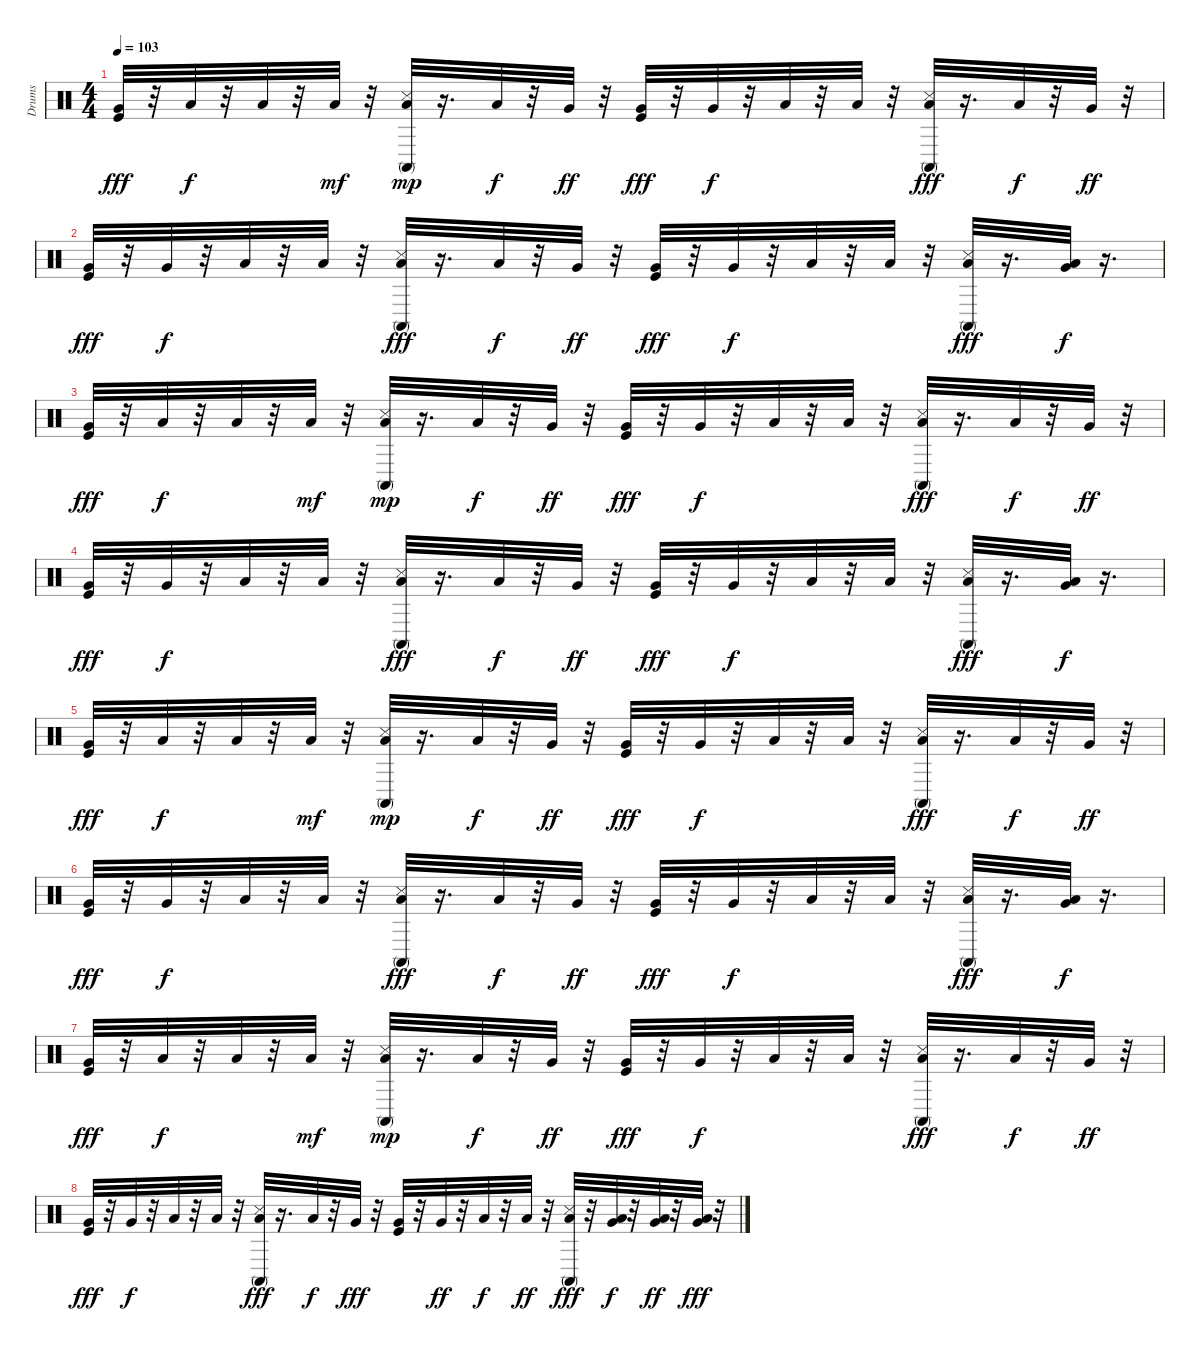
\track ("Drums" "Drums") {instrument percussion}
\staff {score}
\articulation defaults
\ts (4 4)
\tempo 103
\clef neutral
\ks c
("Very Low Tom (hit)" "Kick (hit)").32{dy fff} r.32 "Low Floor Tom (hit)".32{dy f} r.32 "Low Floor Tom (hit)".32 r.32 "Low Floor Tom (hit)".32{dy mf} r.32 ("Conga high (mute)" "Snare (side stick) 3" "Low Floor Tom (hit)").32{dy mp} r.16{d} "Low Floor Tom (hit)".32{dy f} r.32 "Very Low Tom (hit)".32{dy ff} r.32 ("Very Low Tom (hit)" "Kick (hit)").32{dy fff} r.32 "Very Low Tom (hit)".32{dy f} r.32 "Low Floor Tom (hit)".32 r.32 "Low Floor Tom (hit)".32 r.32 ("Conga high (mute)" "Low Floor Tom (hit)" "Snare (side stick) 3").32{dy fff} r.16{d} "Low Floor Tom (hit)".32{dy f} r.32 "Very Low Tom (hit)".32{dy ff} r.32 |
("Very Low Tom (hit)" "Kick (hit)").32{dy fff} r.32 "Very Low Tom (hit)".32{dy f} r.32 "Low Floor Tom (hit)".32 r.32 "Low Floor Tom (hit)".32 r.32 ("Conga high (mute)" "Low Floor Tom (hit)" "Snare (side stick) 3").32{dy fff} r.16{d} "Low Floor Tom (hit)".32{dy f} r.32 "Very Low Tom (hit)".32{dy ff} r.32 ("Very Low Tom (hit)" "Kick (hit)").32{dy fff} r.32 "Very Low Tom (hit)".32{dy f} r.32 "Low Floor Tom (hit)".32 r.32 "Low Floor Tom (hit)".32 r.32 ("Conga high (mute)" "Low Floor Tom (hit)" "Snare (side stick) 3").32{dy fff} r.16{d} ("Low Floor Tom (hit)" "Very Low Tom (hit)").32{dy f} r.16{d} |
("Very Low Tom (hit)" "Kick (hit)").32{dy fff} r.32 "Low Floor Tom (hit)".32{dy f} r.32 "Low Floor Tom (hit)".32 r.32 "Low Floor Tom (hit)".32{dy mf} r.32 ("Conga high (mute)" "Snare (side stick) 3" "Low Floor Tom (hit)").32{dy mp} r.16{d} "Low Floor Tom (hit)".32{dy f} r.32 "Very Low Tom (hit)".32{dy ff} r.32 ("Very Low Tom (hit)" "Kick (hit)").32{dy fff} r.32 "Very Low Tom (hit)".32{dy f} r.32 "Low Floor Tom (hit)".32 r.32 "Low Floor Tom (hit)".32 r.32 ("Conga high (mute)" "Low Floor Tom (hit)" "Snare (side stick) 3").32{dy fff} r.16{d} "Low Floor Tom (hit)".32{dy f} r.32 "Very Low Tom (hit)".32{dy ff} r.32 |
("Very Low Tom (hit)" "Kick (hit)").32{dy fff} r.32 "Very Low Tom (hit)".32{dy f} r.32 "Low Floor Tom (hit)".32 r.32 "Low Floor Tom (hit)".32 r.32 ("Conga high (mute)" "Low Floor Tom (hit)" "Snare (side stick) 3").32{dy fff} r.16{d} "Low Floor Tom (hit)".32{dy f} r.32 "Very Low Tom (hit)".32{dy ff} r.32 ("Very Low Tom (hit)" "Kick (hit)").32{dy fff} r.32 "Very Low Tom (hit)".32{dy f} r.32 "Low Floor Tom (hit)".32 r.32 "Low Floor Tom (hit)".32 r.32 ("Conga high (mute)" "Low Floor Tom (hit)" "Snare (side stick) 3").32{dy fff} r.16{d} ("Low Floor Tom (hit)" "Very Low Tom (hit)").32{dy f} r.16{d} |
("Very Low Tom (hit)" "Kick (hit)").32{dy fff} r.32 "Low Floor Tom (hit)".32{dy f} r.32 "Low Floor Tom (hit)".32 r.32 "Low Floor Tom (hit)".32{dy mf} r.32 ("Conga high (mute)" "Snare (side stick) 3" "Low Floor Tom (hit)").32{dy mp} r.16{d} "Low Floor Tom (hit)".32{dy f} r.32 "Very Low Tom (hit)".32{dy ff} r.32 ("Very Low Tom (hit)" "Kick (hit)").32{dy fff} r.32 "Very Low Tom (hit)".32{dy f} r.32 "Low Floor Tom (hit)".32 r.32 "Low Floor Tom (hit)".32 r.32 ("Conga high (mute)" "Low Floor Tom (hit)" "Snare (side stick) 3").32{dy fff} r.16{d} "Low Floor Tom (hit)".32{dy f} r.32 "Very Low Tom (hit)".32{dy ff} r.32 |
("Very Low Tom (hit)" "Kick (hit)").32{dy fff} r.32 "Very Low Tom (hit)".32{dy f} r.32 "Low Floor Tom (hit)".32 r.32 "Low Floor Tom (hit)".32 r.32 ("Conga high (mute)" "Low Floor Tom (hit)" "Snare (side stick) 3").32{dy fff} r.16{d} "Low Floor Tom (hit)".32{dy f} r.32 "Very Low Tom (hit)".32{dy ff} r.32 ("Very Low Tom (hit)" "Kick (hit)").32{dy fff} r.32 "Very Low Tom (hit)".32{dy f} r.32 "Low Floor Tom (hit)".32 r.32 "Low Floor Tom (hit)".32 r.32 ("Conga high (mute)" "Low Floor Tom (hit)" "Snare (side stick) 3").32{dy fff} r.16{d} ("Low Floor Tom (hit)" "Very Low Tom (hit)").32{dy f} r.16{d} |
("Very Low Tom (hit)" "Kick (hit)").32{dy fff} r.32 "Low Floor Tom (hit)".32{dy f} r.32 "Low Floor Tom (hit)".32 r.32 "Low Floor Tom (hit)".32{dy mf} r.32 ("Conga high (mute)" "Snare (side stick) 3" "Low Floor Tom (hit)").32{dy mp} r.16{d} "Low Floor Tom (hit)".32{dy f} r.32 "Very Low Tom (hit)".32{dy ff} r.32 ("Very Low Tom (hit)" "Kick (hit)").32{dy fff} r.32 "Very Low Tom (hit)".32{dy f} r.32 "Low Floor Tom (hit)".32 r.32 "Low Floor Tom (hit)".32 r.32 ("Conga high (mute)" "Low Floor Tom (hit)" "Snare (side stick) 3").32{dy fff} r.16{d} "Low Floor Tom (hit)".32{dy f} r.32 "Very Low Tom (hit)".32{dy ff} r.32 |
("Very Low Tom (hit)" "Kick (hit)").32{dy fff} r.32 "Very Low Tom (hit)".32{dy f} r.32 "Low Floor Tom (hit)".32 r.32 "Low Floor Tom (hit)".32 r.32 ("Conga high (mute)" "Low Floor Tom (hit)" "Snare (side stick) 3").32{dy fff} r.16{d} "Low Floor Tom (hit)".32{dy f} r.32 "Very Low Tom (hit)".32{dy fff} r.32 ("Very Low Tom (hit)" "Kick (hit)").32 r.32 "Very Low Tom (hit)".32{dy ff} r.32 "Low Floor Tom (hit)".32{dy f} r.32 "Low Floor Tom (hit)".32{dy ff} r.32 ("Conga high (mute)" "Low Floor Tom (hit)" "Snare (side stick) 3").32{dy fff} r.32 ("Very Low Tom (hit)" "Low Floor Tom (hit)").32{dy f} r.32 ("Very Low Tom (hit)" "Low Floor Tom (hit)").32{dy ff} r.32 ("Very Low Tom (hit)" "Low Floor Tom (hit)").32{dy fff} r.32
